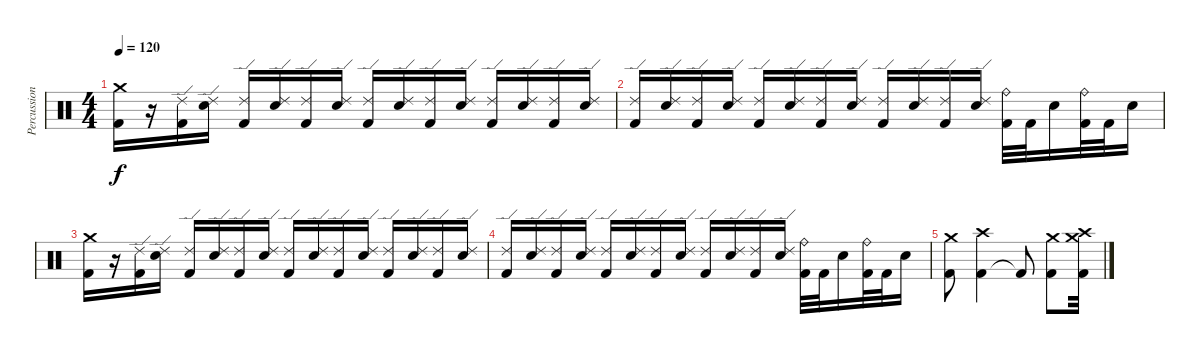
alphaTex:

\track ("Percussion" "Percussion") {instrument percussion}
\staff {score}
\articulation defaults
\ts (4 4)
\tempo 120
\clef neutral
\ks c
("Kick (hit) 2" "Crash medium (hit)").16{dy f} r.16 ("Kick (hit) 2" "Ride (edge) 2").16 ("Snare (hit) 2" "Ride (edge) 2").16 ("Kick (hit) 2" "Ride (edge) 2").16 ("Snare (hit) 2" "Ride (edge) 2").16 ("Kick (hit) 2" "Ride (edge) 2").16 ("Snare (hit) 2" "Ride (edge) 2").16 ("Kick (hit) 2" "Ride (edge) 2").16 ("Snare (hit) 2" "Ride (edge) 2").16 ("Kick (hit) 2" "Ride (edge) 2").16 ("Snare (hit) 2" "Ride (edge) 2").16 ("Kick (hit) 2" "Ride (edge) 2").16 ("Snare (hit) 2" "Ride (edge) 2").16 ("Kick (hit) 2" "Ride (edge) 2").16 ("Snare (hit) 2" "Ride (edge) 2").16 |
("Kick (hit) 2" "Ride (edge) 2").16 ("Snare (hit) 2" "Ride (edge) 2").16 ("Kick (hit) 2" "Ride (edge) 2").16 ("Snare (hit) 2" "Ride (edge) 2").16 ("Kick (hit) 2" "Ride (edge) 2").16 ("Snare (hit) 2" "Ride (edge) 2").16 ("Kick (hit) 2" "Ride (edge) 2").16 ("Snare (hit) 2" "Ride (edge) 2").16 ("Kick (hit) 2" "Ride (edge) 2").16 ("Snare (hit) 2" "Ride (edge) 2").16 ("Kick (hit) 2" "Ride (edge) 2").16 ("Snare (hit) 2" "Ride (edge) 2").16 ("Kick (hit) 2" "Ride (bell)").32 "Kick (hit) 2".32 "Snare (hit) 2".16 ("Kick (hit) 2" "Ride (bell)").32 "Kick (hit) 2".32 "Snare (hit) 2".16 |
("Kick (hit) 2" "Crash medium (hit)").16 r.16 ("Kick (hit) 2" "Ride (edge) 2").16 ("Snare (hit) 2" "Ride (edge) 2").16 ("Kick (hit) 2" "Ride (edge) 2").16 ("Snare (hit) 2" "Ride (edge) 2").16 ("Kick (hit) 2" "Ride (edge) 2").16 ("Snare (hit) 2" "Ride (edge) 2").16 ("Kick (hit) 2" "Ride (edge) 2").16 ("Snare (hit) 2" "Ride (edge) 2").16 ("Kick (hit) 2" "Ride (edge) 2").16 ("Snare (hit) 2" "Ride (edge) 2").16 ("Kick (hit) 2" "Ride (edge) 2").16 ("Snare (hit) 2" "Ride (edge) 2").16 ("Kick (hit) 2" "Ride (edge) 2").16 ("Snare (hit) 2" "Ride (edge) 2").16 |
("Kick (hit) 2" "Ride (edge) 2").16 ("Snare (hit) 2" "Ride (edge) 2").16 ("Kick (hit) 2" "Ride (edge) 2").16 ("Snare (hit) 2" "Ride (edge) 2").16 ("Kick (hit) 2" "Ride (edge) 2").16 ("Snare (hit) 2" "Ride (edge) 2").16 ("Kick (hit) 2" "Ride (edge) 2").16 ("Snare (hit) 2" "Ride (edge) 2").16 ("Kick (hit) 2" "Ride (edge) 2").16 ("Snare (hit) 2" "Ride (edge) 2").16 ("Kick (hit) 2" "Ride (edge) 2").16 ("Snare (hit) 2" "Ride (edge) 2").16 ("Kick (hit) 2" "Ride (bell)").32 "Kick (hit) 2".32 "Snare (hit) 2".16 ("Kick (hit) 2" "Ride (bell)").32 "Kick (hit) 2".32 "Snare (hit) 2".16 |
("Kick (hit) 2" "Crash medium (hit)").8 ("Kick (hit) 2" "Crash high (hit)").4 "Kick (hit) 2"{t}.8 ("Kick (hit) 2" "Crash medium (hit)").8 ("Kick (hit) 2" "Crash high (hit)" "Crash medium (hit)").32
